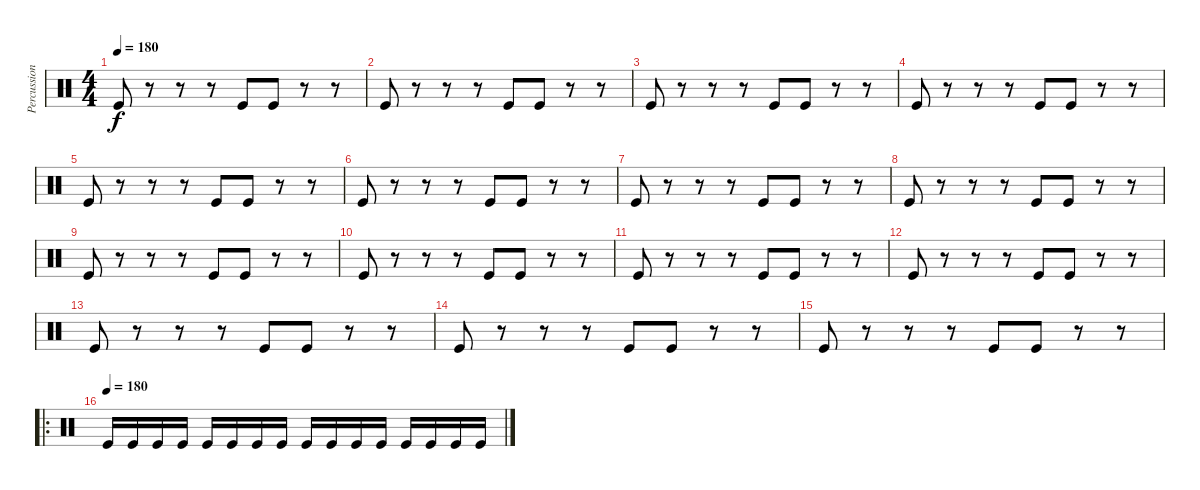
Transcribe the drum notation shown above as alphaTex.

\track ("Percussion" "Percussion") {instrument percussion}
\staff {score}
\articulation defaults
\ts (4 4)
\tempo 180
\clef neutral
\ks c "Kick (hit)".8{dy f}
r.8 r.8 r.8 "Kick (hit)".8 "Kick (hit)".8 r.8 r.8 |
"Kick (hit)".8 r.8 r.8 r.8 "Kick (hit)".8 "Kick (hit)".8 r.8 r.8 |
"Kick (hit)".8 r.8 r.8 r.8 "Kick (hit)".8 "Kick (hit)".8 r.8 r.8 |
"Kick (hit)".8 r.8 r.8 r.8 "Kick (hit)".8 "Kick (hit)".8 r.8 r.8 |
"Kick (hit)".8 r.8 r.8 r.8 "Kick (hit)".8 "Kick (hit)".8 r.8 r.8 |
"Kick (hit)".8 r.8 r.8 r.8 "Kick (hit)".8 "Kick (hit)".8 r.8 r.8 |
"Kick (hit)".8 r.8 r.8 r.8 "Kick (hit)".8 "Kick (hit)".8 r.8 r.8 |
"Kick (hit)".8 r.8 r.8 r.8 "Kick (hit)".8 "Kick (hit)".8 r.8 r.8 |
"Kick (hit)".8 r.8 r.8 r.8 "Kick (hit)".8 "Kick (hit)".8 r.8 r.8 |
"Kick (hit)".8 r.8 r.8 r.8 "Kick (hit)".8 "Kick (hit)".8 r.8 r.8 |
"Kick (hit)".8 r.8 r.8 r.8 "Kick (hit)".8 "Kick (hit)".8 r.8 r.8 |
"Kick (hit)".8 r.8 r.8 r.8 "Kick (hit)".8 "Kick (hit)".8 r.8 r.8 |
"Kick (hit)".8 r.8 r.8 r.8 "Kick (hit)".8 "Kick (hit)".8 r.8 r.8 |
"Kick (hit)".8 r.8 r.8 r.8 "Kick (hit)".8 "Kick (hit)".8 r.8 r.8 |
"Kick (hit)".8 r.8 r.8 r.8 "Kick (hit)".8 "Kick (hit)".8 r.8 r.8 |
\ro
\tempo (180)
"Kick (hit)".16 "Kick (hit)".16 "Kick (hit)".16 "Kick (hit)".16 "Kick (hit)".16 "Kick (hit)".16 "Kick (hit)".16 "Kick (hit)".16 "Kick (hit)".16 "Kick (hit)".16 "Kick (hit)".16 "Kick (hit)".16 "Kick (hit)".16 "Kick (hit)".16 "Kick (hit)".16 "Kick (hit)".16
